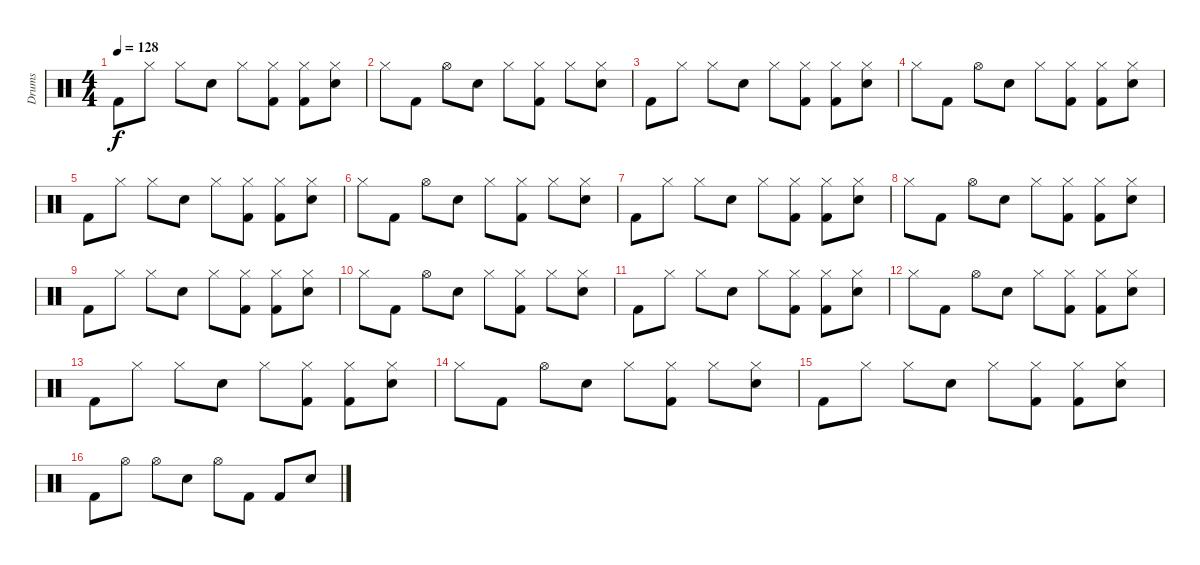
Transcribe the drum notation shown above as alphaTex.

\track ("Drums" "Drums") {instrument percussion}
\staff {score}
\articulation defaults
\ts (4 4)
\tempo 128
\clef neutral
\ks c "Kick (hit) 2".8{dy f} "Hi-Hat (closed)".8 "Hi-Hat (closed)".8 "Snare (hit) 2".8 "Hi-Hat (closed)".8
("Hi-Hat (closed)" "Kick (hit) 2").8 ("Hi-Hat (closed)" "Kick (hit) 2").8 ("Hi-Hat (closed)" "Snare (hit) 2").8 |
"Hi-Hat (closed)".8 "Kick (hit) 2".8 "Hi-Hat (open)".8 "Snare (hit) 2".8 "Hi-Hat (closed)".8 ("Hi-Hat (closed)" "Kick (hit) 2").8 "Hi-Hat (closed)".8 ("Hi-Hat (closed)" "Snare (hit) 2").8 |
"Kick (hit) 2".8 "Hi-Hat (closed)".8 "Hi-Hat (closed)".8 "Snare (hit) 2".8 "Hi-Hat (closed)".8 ("Hi-Hat (closed)" "Kick (hit) 2").8 ("Hi-Hat (closed)" "Kick (hit) 2").8 ("Hi-Hat (closed)" "Snare (hit) 2").8 |
"Hi-Hat (closed)".8 "Kick (hit) 2".8 "Hi-Hat (open)".8 "Snare (hit) 2".8 "Hi-Hat (closed)".8 ("Hi-Hat (closed)" "Kick (hit) 2").8 ("Hi-Hat (closed)" "Kick (hit) 2").8 ("Hi-Hat (closed)" "Snare (hit) 2").8 |
"Kick (hit) 2".8 "Hi-Hat (closed)".8 "Hi-Hat (closed)".8 "Snare (hit) 2".8 "Hi-Hat (closed)".8 ("Hi-Hat (closed)" "Kick (hit) 2").8 ("Hi-Hat (closed)" "Kick (hit) 2").8 ("Hi-Hat (closed)" "Snare (hit) 2").8 |
"Hi-Hat (closed)".8 "Kick (hit) 2".8 "Hi-Hat (open)".8 "Snare (hit) 2".8 "Hi-Hat (closed)".8 ("Hi-Hat (closed)" "Kick (hit) 2").8 "Hi-Hat (closed)".8 ("Hi-Hat (closed)" "Snare (hit) 2").8 |
"Kick (hit) 2".8 "Hi-Hat (closed)".8 "Hi-Hat (closed)".8 "Snare (hit) 2".8 "Hi-Hat (closed)".8 ("Hi-Hat (closed)" "Kick (hit) 2").8 ("Hi-Hat (closed)" "Kick (hit) 2").8 ("Hi-Hat (closed)" "Snare (hit) 2").8 |
"Hi-Hat (closed)".8 "Kick (hit) 2".8 "Hi-Hat (open)".8 "Snare (hit) 2".8 "Hi-Hat (closed)".8 ("Hi-Hat (closed)" "Kick (hit) 2").8 ("Hi-Hat (closed)" "Kick (hit) 2").8 ("Hi-Hat (closed)" "Snare (hit) 2").8 |
"Kick (hit) 2".8 "Hi-Hat (closed)".8 "Hi-Hat (closed)".8 "Snare (hit) 2".8 "Hi-Hat (closed)".8 ("Hi-Hat (closed)" "Kick (hit) 2").8 ("Hi-Hat (closed)" "Kick (hit) 2").8 ("Hi-Hat (closed)" "Snare (hit) 2").8 |
"Hi-Hat (closed)".8 "Kick (hit) 2".8 "Hi-Hat (open)".8 "Snare (hit) 2".8 "Hi-Hat (closed)".8 ("Hi-Hat (closed)" "Kick (hit) 2").8 "Hi-Hat (closed)".8 ("Hi-Hat (closed)" "Snare (hit) 2").8 |
"Kick (hit) 2".8 "Hi-Hat (closed)".8 "Hi-Hat (closed)".8 "Snare (hit) 2".8 "Hi-Hat (closed)".8 ("Hi-Hat (closed)" "Kick (hit) 2").8 ("Hi-Hat (closed)" "Kick (hit) 2").8 ("Hi-Hat (closed)" "Snare (hit) 2").8 |
"Hi-Hat (closed)".8 "Kick (hit) 2".8 "Hi-Hat (open)".8 "Snare (hit) 2".8 "Hi-Hat (closed)".8 ("Hi-Hat (closed)" "Kick (hit) 2").8 ("Hi-Hat (closed)" "Kick (hit) 2").8 ("Hi-Hat (closed)" "Snare (hit) 2").8 |
"Kick (hit) 2".8 "Hi-Hat (closed)".8 "Hi-Hat (closed)".8 "Snare (hit) 2".8 "Hi-Hat (closed)".8 ("Hi-Hat (closed)" "Kick (hit) 2").8 ("Hi-Hat (closed)" "Kick (hit) 2").8 ("Hi-Hat (closed)" "Snare (hit) 2").8 |
"Hi-Hat (closed)".8 "Kick (hit) 2".8 "Hi-Hat (open)".8 "Snare (hit) 2".8 "Hi-Hat (closed)".8 ("Hi-Hat (closed)" "Kick (hit) 2").8 "Hi-Hat (closed)".8 ("Hi-Hat (closed)" "Snare (hit) 2").8 |
"Kick (hit) 2".8 "Hi-Hat (closed)".8 "Hi-Hat (closed)".8 "Snare (hit) 2".8 "Hi-Hat (closed)".8 ("Hi-Hat (closed)" "Kick (hit) 2").8 ("Hi-Hat (closed)" "Kick (hit) 2").8 ("Hi-Hat (closed)" "Snare (hit) 2").8 |
"Kick (hit) 2".8 "Hi-Hat (open)".8 "Hi-Hat (open)".8 "Snare (hit) 2".8 "Hi-Hat (open)".8 "Kick (hit) 2".8 "Kick (hit) 2".8 "Snare (hit) 2".8
